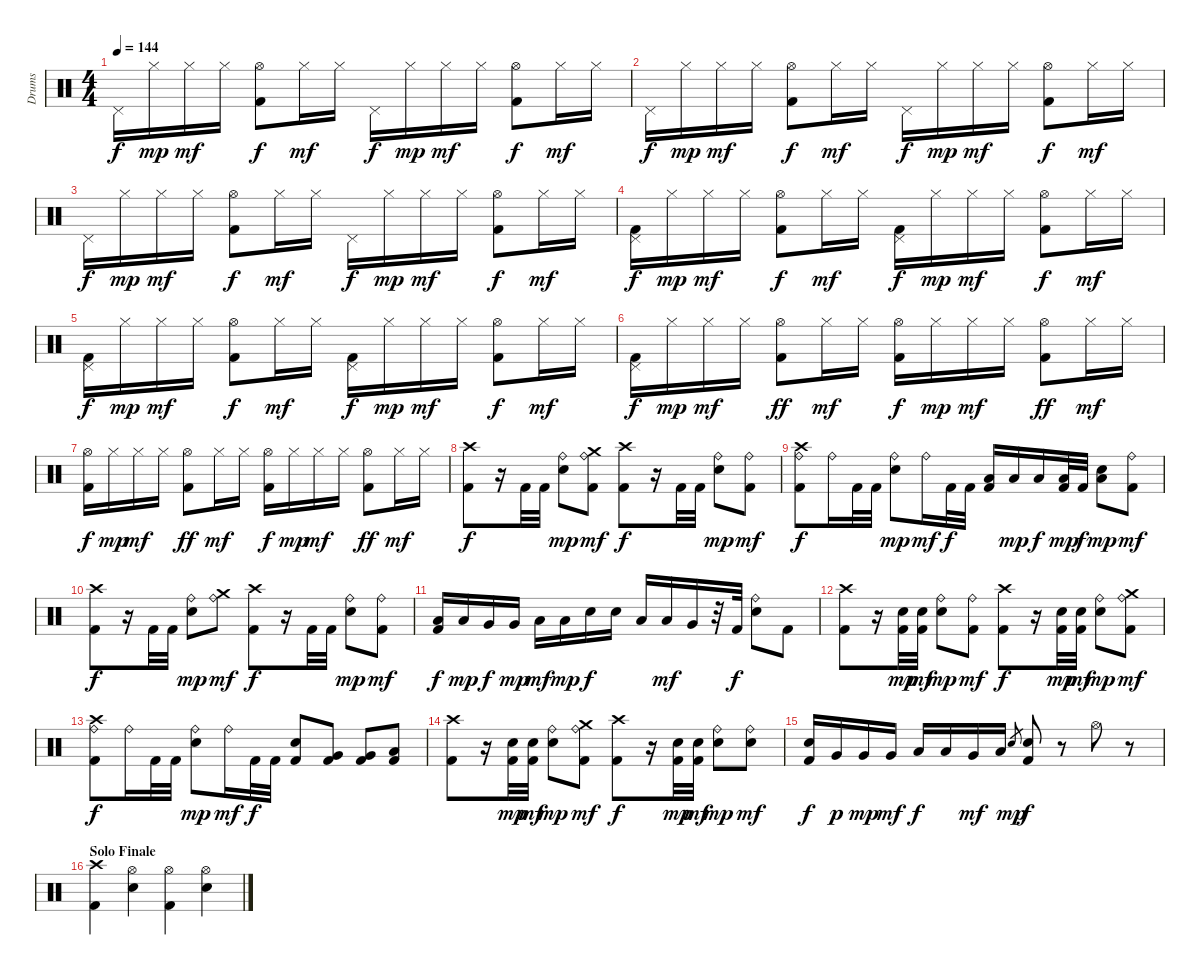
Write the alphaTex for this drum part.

\track ("Drums" "Drums") {instrument percussion}
\staff {score}
\articulation defaults
\ts (4 4)
\tempo 144
\clef neutral
\ks c "Pedal Hi-Hat (hit)".16{dy f} "Hi-Hat (closed)".16{dy mp} "Hi-Hat (closed)".16{dy mf} "Hi-Hat (closed)".16
("Kick (hit) 2" "Hi-Hat (open)").8{dy f} "Hi-Hat (closed)".16{dy mf} "Hi-Hat (closed)".16 "Pedal Hi-Hat (hit)".16{dy f} "Hi-Hat (closed)".16{dy mp} "Hi-Hat (closed)".16{dy mf} "Hi-Hat (closed)".16 ("Kick (hit) 2" "Hi-Hat (open)").8{dy f} "Hi-Hat (closed)".16{dy mf} "Hi-Hat (closed)".16 |
"Pedal Hi-Hat (hit)".16{dy f} "Hi-Hat (closed)".16{dy mp} "Hi-Hat (closed)".16{dy mf} "Hi-Hat (closed)".16 ("Kick (hit) 2" "Hi-Hat (open)").8{dy f} "Hi-Hat (closed)".16{dy mf} "Hi-Hat (closed)".16 "Pedal Hi-Hat (hit)".16{dy f} "Hi-Hat (closed)".16{dy mp} "Hi-Hat (closed)".16{dy mf} "Hi-Hat (closed)".16 ("Kick (hit) 2" "Hi-Hat (open)").8{dy f} "Hi-Hat (closed)".16{dy mf} "Hi-Hat (closed)".16 |
"Pedal Hi-Hat (hit)".16{dy f} "Hi-Hat (closed)".16{dy mp} "Hi-Hat (closed)".16{dy mf} "Hi-Hat (closed)".16 ("Kick (hit) 2" "Hi-Hat (open)").8{dy f} "Hi-Hat (closed)".16{dy mf} "Hi-Hat (closed)".16 "Pedal Hi-Hat (hit)".16{dy f} "Hi-Hat (closed)".16{dy mp} "Hi-Hat (closed)".16{dy mf} "Hi-Hat (closed)".16 ("Kick (hit) 2" "Hi-Hat (open)").8{dy f} "Hi-Hat (closed)".16{dy mf} "Hi-Hat (closed)".16 |
("Kick (hit) 2" "Pedal Hi-Hat (hit)").16{dy f} "Hi-Hat (closed)".16{dy mp} "Hi-Hat (closed)".16{dy mf} "Hi-Hat (closed)".16 ("Kick (hit) 2" "Hi-Hat (open)").8{dy f} "Hi-Hat (closed)".16{dy mf} "Hi-Hat (closed)".16 ("Kick (hit) 2" "Pedal Hi-Hat (hit)").16{dy f} "Hi-Hat (closed)".16{dy mp} "Hi-Hat (closed)".16{dy mf} "Hi-Hat (closed)".16 ("Kick (hit) 2" "Hi-Hat (open)").8{dy f} "Hi-Hat (closed)".16{dy mf} "Hi-Hat (closed)".16 |
("Kick (hit) 2" "Pedal Hi-Hat (hit)").16{dy f} "Hi-Hat (closed)".16{dy mp} "Hi-Hat (closed)".16{dy mf} "Hi-Hat (closed)".16 ("Kick (hit) 2" "Hi-Hat (open)").8{dy f} "Hi-Hat (closed)".16{dy mf} "Hi-Hat (closed)".16 ("Kick (hit) 2" "Pedal Hi-Hat (hit)").16{dy f} "Hi-Hat (closed)".16{dy mp} "Hi-Hat (closed)".16{dy mf} "Hi-Hat (closed)".16 ("Kick (hit) 2" "Hi-Hat (open)").8{dy f} "Hi-Hat (closed)".16{dy mf} "Hi-Hat (closed)".16 |
("Kick (hit) 2" "Pedal Hi-Hat (hit)").16{dy f} "Hi-Hat (closed)".16{dy mp} "Hi-Hat (closed)".16{dy mf} "Hi-Hat (closed)".16 ("Kick (hit) 2" "Hi-Hat (open)").8{dy ff} "Hi-Hat (closed)".16{dy mf} "Hi-Hat (closed)".16 ("Kick (hit) 2" "Hi-Hat (open)").16{dy f} "Hi-Hat (closed)".16{dy mp} "Hi-Hat (closed)".16{dy mf} "Hi-Hat (closed)".16 ("Kick (hit) 2" "Hi-Hat (open)").8{dy ff} "Hi-Hat (closed)".16{dy mf} "Hi-Hat (closed)".16 |
("Kick (hit) 2" "Hi-Hat (open)").16{dy f} "Hi-Hat (closed)".16{dy mp} "Hi-Hat (closed)".16{dy mf} "Hi-Hat (closed)".16 ("Kick (hit) 2" "Hi-Hat (open)").8{dy ff} "Hi-Hat (closed)".16{dy mf} "Hi-Hat (closed)".16 ("Kick (hit) 2" "Hi-Hat (open)").16{dy f} "Hi-Hat (closed)".16{dy mp} "Hi-Hat (closed)".16{dy mf} "Hi-Hat (closed)".16 ("Kick (hit) 2" "Hi-Hat (open)").8{dy ff} "Hi-Hat (closed)".16{dy mf} "Hi-Hat (closed)".16 |
("Kick (hit) 2" "Crash high (hit)").8{dy f} r.16 "Kick (hit) 2".32 "Kick (hit) 2".32 ("Electric Snare (hit)" "Ride (bell)").8{dy mp} ("Kick (hit) 2" "Ride (bell)" "Crash medium (hit)").8{dy mf} ("Kick (hit) 2" "Crash high (hit)").8{dy f} r.16 "Kick (hit) 2".32 "Kick (hit) 2".32 ("Electric Snare (hit)" "Ride (bell)").8{dy mp} ("Kick (hit) 2" "Ride (bell)").8{dy mf} |
("Kick (hit) 2" "Ride (bell)" "Crash high (hit)").8{dy f} "Ride (bell)".16 "Kick (hit) 2".32 "Kick (hit) 2".32 ("Electric Snare (hit)" "Ride (bell)").8{dy mp} "Ride (bell)".16{dy mf} "Kick (hit) 2".32{dy f} "Kick (hit) 2".32 ("Kick (hit) 2" "Low Tom (hit)").16 "Low Tom (hit)".16{dy mp} "Low Tom (hit)".16{dy f} ("Kick (hit) 2" "Low Tom (hit)").32{dy mp} "Kick (hit) 2".32{dy f} ("Electric Snare (hit)" "Low Tom (hit)").8{dy mp} ("Kick (hit) 2" "Ride (bell)").8{dy mf} |
("Kick (hit) 2" "Crash high (hit)").8{dy f} r.16 "Kick (hit) 2".32 "Kick (hit) 2".32 ("Electric Snare (hit)" "Ride (bell)").8{dy mp} ("Ride (bell)" "Crash medium (hit)").8{dy mf} ("Kick (hit) 2" "Crash high (hit)").8{dy f} r.16 "Kick (hit) 2".32 "Kick (hit) 2".32 ("Electric Snare (hit)" "Ride (bell)").8{dy mp} ("Kick (hit) 2" "Ride (bell)").8{dy mf} |
("Kick (hit) 2" "Low Tom (hit)").16{dy f} "Low Tom (hit)".16{dy mp} "Very Low Tom (hit)".16{dy f} "Very Low Tom (hit)".16{dy mp} "Low Floor Tom (hit)".16{dy mf} "Low Floor Tom (hit)".16{dy mp} "Electric Snare (hit)".16{dy f} "Electric Snare (hit)".16 "Low Tom (hit)".16 "Low Tom (hit)".16{dy mf} "Very Low Tom (hit)".16 r.32 "Kick (hit) 2".32{dy f} ("Electric Snare (hit)" "Ride (bell)").8 "Kick (hit) 2".8 |
("Kick (hit) 2" "Crash high (hit)").8 r.16 ("Kick (hit) 2" "Electric Snare (hit)").32{dy mp} ("Kick (hit) 2" "Electric Snare (hit)").32{dy mf} ("Electric Snare (hit)" "Ride (bell)").8{dy mp} ("Kick (hit) 2" "Ride (bell)").8{dy mf} ("Kick (hit) 2" "Crash high (hit)").8{dy f} r.16 ("Kick (hit) 2" "Electric Snare (hit)").32{dy mp} ("Kick (hit) 2" "Electric Snare (hit)").32{dy mf} ("Electric Snare (hit)" "Ride (bell)").8{dy mp} ("Kick (hit) 2" "Ride (bell)" "Crash medium (hit)").8{dy mf} |
("Kick (hit) 2" "Ride (bell)" "Crash high (hit)").8{dy f} "Ride (bell)".16 "Kick (hit) 2".32 "Kick (hit) 2".32 ("Electric Snare (hit)" "Ride (bell)").8{dy mp} "Ride (bell)".16{dy mf} "Kick (hit) 2".32{dy f} "Kick (hit) 2".32 ("Kick (hit) 2" "Electric Snare (hit)").8 ("Kick (hit) 2" "Very Low Tom (hit)").8 ("Kick (hit) 2" "Very Low Tom (hit)").8 ("Kick (hit) 2" "Low Tom (hit)").8 |
("Kick (hit) 2" "Crash high (hit)").8 r.16 ("Kick (hit) 2" "Electric Snare (hit)").32{dy mp} ("Kick (hit) 2" "Electric Snare (hit)").32{dy mf} ("Electric Snare (hit)" "Ride (bell)").8{dy mp} ("Kick (hit) 2" "Ride (bell)" "Crash medium (hit)").8{dy mf} ("Kick (hit) 2" "Crash high (hit)").8{dy f} r.16 ("Kick (hit) 2" "Electric Snare (hit)").32{dy mp} ("Kick (hit) 2" "Electric Snare (hit)").32{dy mf} ("Electric Snare (hit)" "Ride (bell)").8{dy mp} ("Electric Snare (hit)" "Ride (bell)").8{dy mf} |
("Kick (hit) 2" "Electric Snare (hit)").16{dy f} "Very Low Tom (hit)".16{dy p} "Very Low Tom (hit)".16{dy mp} "Very Low Tom (hit)".16{dy mf} "Low Tom (hit)".16{dy f} "Low Tom (hit)".16 "Very Low Tom (hit)".16{dy mf} "Low Floor Tom (hit)".16 "Electric Snare (hit)".8{gr dy mp} ("Kick (hit) 2" "Electric Snare (hit)").8{dy f} r.8 "Hi-Hat (open)".8 r.8 |
\section ("" "Solo Finale")
("Kick (hit) 2" "Crash high (hit)").4 ("Electric Snare (hit)" "Hi-Hat (open)").4 ("Kick (hit) 2" "Hi-Hat (open)").4 ("Electric Snare (hit)" "Hi-Hat (open)").4
